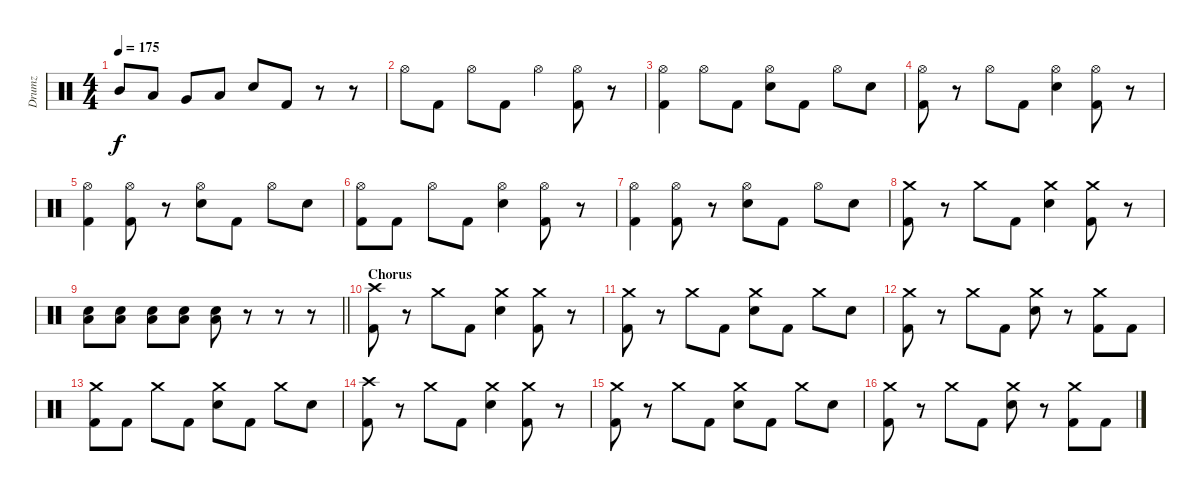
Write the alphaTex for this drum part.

\track ("Drumz" "Drumz") {instrument percussion}
\staff {score}
\articulation defaults
\ts (4 4)
\tempo 175
\clef neutral
\ks c "Mid Tom (hit)".8{dy f} "Low Tom (hit)".8 "Very Low Tom (hit)".8 "Low Floor Tom (hit)".8 "Snare (hit) 2".8 "Kick (hit) 2".8
r.8 r.8 |
"Hi-Hat (open)".8 "Kick (hit) 2".8 "Hi-Hat (open)".8 "Kick (hit) 2".8 "Hi-Hat (open)".4 ("Kick (hit) 2" "Hi-Hat (open)").8 r.8 |
("Kick (hit) 2" "Hi-Hat (open)").4 "Hi-Hat (open)".8 "Kick (hit) 2".8 ("Snare (hit) 2" "Hi-Hat (open)").8 "Kick (hit) 2".8 "Hi-Hat (open)".8 "Snare (hit) 2".8 |
("Kick (hit) 2" "Hi-Hat (open)").8 r.8 "Hi-Hat (open)".8 "Kick (hit) 2".8 ("Snare (hit) 2" "Hi-Hat (open)").4 ("Kick (hit) 2" "Hi-Hat (open)").8 r.8 |
("Kick (hit) 2" "Hi-Hat (open)").4 ("Kick (hit) 2" "Hi-Hat (open)").8 r.8 ("Snare (hit) 2" "Hi-Hat (open)").8 "Kick (hit) 2".8 "Hi-Hat (open)".8 "Snare (hit) 2".8 |
("Kick (hit) 2" "Hi-Hat (open)").8 "Kick (hit) 2".8 "Hi-Hat (open)".8 "Kick (hit) 2".8 ("Snare (hit) 2" "Hi-Hat (open)").4 ("Kick (hit) 2" "Hi-Hat (open)").8 r.8 |
("Kick (hit) 2" "Hi-Hat (open)").4 ("Kick (hit) 2" "Hi-Hat (open)").8 r.8 ("Snare (hit) 2" "Hi-Hat (open)").8 "Kick (hit) 2".8 "Hi-Hat (open)".8 "Snare (hit) 2".8 |
("Crash medium (hit)" "Kick (hit) 2").8 r.8 "Crash medium (hit)".8 "Kick (hit) 2".8 ("Crash medium (hit)" "Snare (hit) 2").4 ("Crash medium (hit)" "Kick (hit) 2").8 r.8 |
\barLineRight lightlight
("Low Floor Tom (hit)" "Snare (hit) 2").8 ("Low Floor Tom (hit)" "Snare (hit) 2").8 ("Low Floor Tom (hit)" "Snare (hit) 2").8 ("Low Floor Tom (hit)" "Snare (hit) 2").8 ("Low Floor Tom (hit)" "Snare (hit) 2").8 r.8 r.8 r.8 |
\section ("" "Chorus")
("Kick (hit) 2" "Crash high (hit)").8 r.8 "Crash medium (hit)".8 "Kick (hit) 2".8 ("Crash medium (hit)" "Snare (hit) 2").4 ("Crash medium (hit)" "Kick (hit) 2").8 r.8 |
("Crash medium (hit)" "Kick (hit) 2").8 r.8 "Crash medium (hit)".8 "Kick (hit) 2".8 ("Crash medium (hit)" "Snare (hit) 2").8 "Kick (hit) 2".8 "Crash medium (hit)".8 "Snare (hit) 2".8 |
("Crash medium (hit)" "Kick (hit) 2").8 r.8 "Crash medium (hit)".8 "Kick (hit) 2".8 ("Crash medium (hit)" "Snare (hit) 2").8 r.8 ("Crash medium (hit)" "Kick (hit) 2").8 "Kick (hit) 2".8 |
("Crash medium (hit)" "Kick (hit) 2").8 "Kick (hit) 2".8 "Crash medium (hit)".8 "Kick (hit) 2".8 ("Crash medium (hit)" "Snare (hit) 2").8 "Kick (hit) 2".8 "Crash medium (hit)".8 "Snare (hit) 2".8 |
("Kick (hit) 2" "Crash high (hit)").8 r.8 "Crash medium (hit)".8 "Kick (hit) 2".8 ("Crash medium (hit)" "Snare (hit) 2").4 ("Crash medium (hit)" "Kick (hit) 2").8 r.8 |
("Crash medium (hit)" "Kick (hit) 2").8 r.8 "Crash medium (hit)".8 "Kick (hit) 2".8 ("Crash medium (hit)" "Snare (hit) 2").8 "Kick (hit) 2".8 "Crash medium (hit)".8 "Snare (hit) 2".8 |
("Crash medium (hit)" "Kick (hit) 2").8 r.8 "Crash medium (hit)".8 "Kick (hit) 2".8 ("Crash medium (hit)" "Snare (hit) 2").8 r.8 ("Crash medium (hit)" "Kick (hit) 2").8 "Kick (hit) 2".8
